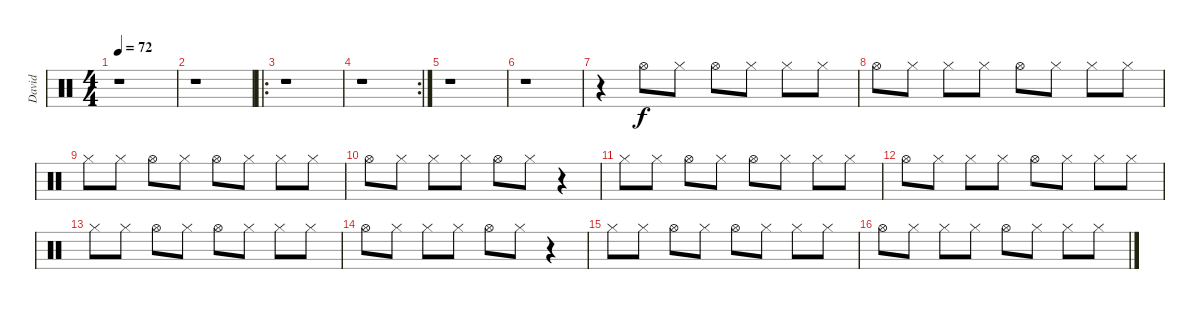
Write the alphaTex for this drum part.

\track ("David" "David") {instrument percussion}
\staff {score}
\articulation defaults
\ts (4 4)
\tempo 72
\clef neutral
\ks c
r.1{dy f} |
r.1 |
\ro
r.1 |
\rc 2
r.1 |
r.1 |
r.1 |
r.4 "Hi-Hat (open)".8 "Hi-Hat (closed)".8 "Hi-Hat (open)".8 "Hi-Hat (closed)".8 "Hi-Hat (closed)".8 "Hi-Hat (closed)".8 |
"Hi-Hat (open)".8 "Hi-Hat (closed)".8 "Hi-Hat (closed)".8 "Hi-Hat (closed)".8 "Hi-Hat (open)".8 "Hi-Hat (closed)".8 "Hi-Hat (closed)".8 "Hi-Hat (closed)".8 |
"Hi-Hat (closed)".8 "Hi-Hat (closed)".8 "Hi-Hat (open)".8 "Hi-Hat (closed)".8 "Hi-Hat (open)".8 "Hi-Hat (closed)".8 "Hi-Hat (closed)".8 "Hi-Hat (closed)".8 |
"Hi-Hat (open)".8 "Hi-Hat (closed)".8 "Hi-Hat (closed)".8 "Hi-Hat (closed)".8 "Hi-Hat (open)".8 "Hi-Hat (closed)".8 r.4 |
"Hi-Hat (closed)".8 "Hi-Hat (closed)".8 "Hi-Hat (open)".8 "Hi-Hat (closed)".8 "Hi-Hat (open)".8 "Hi-Hat (closed)".8 "Hi-Hat (closed)".8 "Hi-Hat (closed)".8 |
"Hi-Hat (open)".8 "Hi-Hat (closed)".8 "Hi-Hat (closed)".8 "Hi-Hat (closed)".8 "Hi-Hat (open)".8 "Hi-Hat (closed)".8 "Hi-Hat (closed)".8 "Hi-Hat (closed)".8 |
"Hi-Hat (closed)".8 "Hi-Hat (closed)".8 "Hi-Hat (open)".8 "Hi-Hat (closed)".8 "Hi-Hat (open)".8 "Hi-Hat (closed)".8 "Hi-Hat (closed)".8 "Hi-Hat (closed)".8 |
"Hi-Hat (open)".8 "Hi-Hat (closed)".8 "Hi-Hat (closed)".8 "Hi-Hat (closed)".8 "Hi-Hat (open)".8 "Hi-Hat (closed)".8 r.4 |
"Hi-Hat (closed)".8 "Hi-Hat (closed)".8 "Hi-Hat (open)".8 "Hi-Hat (closed)".8 "Hi-Hat (open)".8 "Hi-Hat (closed)".8 "Hi-Hat (closed)".8 "Hi-Hat (closed)".8 |
"Hi-Hat (open)".8 "Hi-Hat (closed)".8 "Hi-Hat (closed)".8 "Hi-Hat (closed)".8 "Hi-Hat (open)".8 "Hi-Hat (closed)".8 "Hi-Hat (closed)".8 "Hi-Hat (closed)".8
